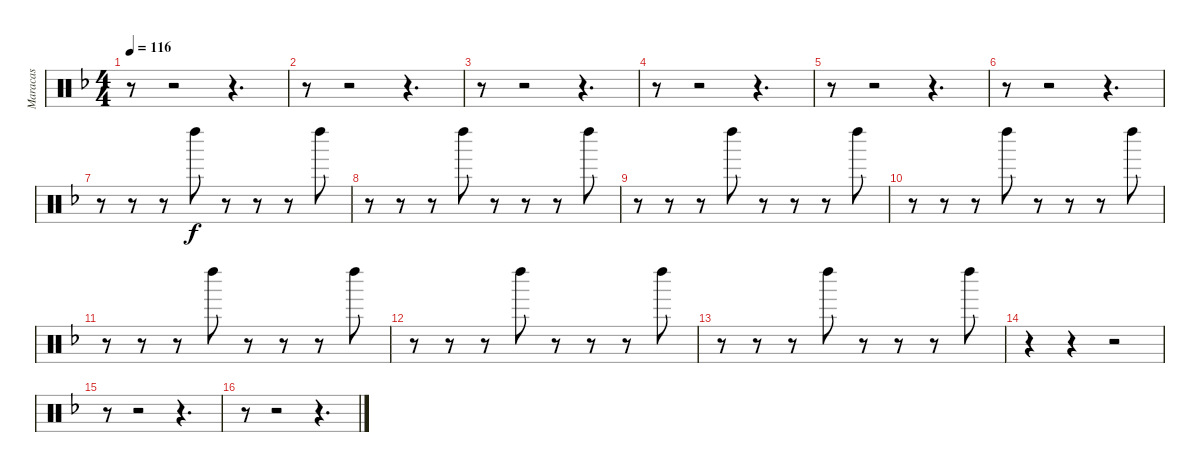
\track ("Maracas" "Maracas") {instrument percussion}
\staff {score}
\articulation defaults
\ts (4 4)
\tempo 116
\clef neutral
\ks dminor
r.8{dy f} r.2 r.4{d} |
r.8 r.2 r.4{d} |
r.8 r.2 r.4{d} |
r.8 r.2 r.4{d} |
r.8 r.2 r.4{d} |
r.8 r.2 r.4{d} |
r.8 r.8 r.8 "Left Maraca (hit)".8 r.8 r.8 r.8 "Left Maraca (hit)".8 |
r.8 r.8 r.8 "Left Maraca (hit)".8 r.8 r.8 r.8 "Left Maraca (hit)".8 |
r.8 r.8 r.8 "Left Maraca (hit)".8 r.8 r.8 r.8 "Left Maraca (hit)".8 |
r.8 r.8 r.8 "Left Maraca (hit)".8 r.8 r.8 r.8 "Left Maraca (hit)".8 |
r.8 r.8 r.8 "Left Maraca (hit)".8 r.8 r.8 r.8 "Left Maraca (hit)".8 |
r.8 r.8 r.8 "Left Maraca (hit)".8 r.8 r.8 r.8 "Left Maraca (hit)".8 |
r.8 r.8 r.8 "Left Maraca (hit)".8 r.8 r.8 r.8 "Left Maraca (hit)".8 |
r.4 r.4 r.2 |
r.8 r.2 r.4{d} |
r.8 r.2 r.4{d}
